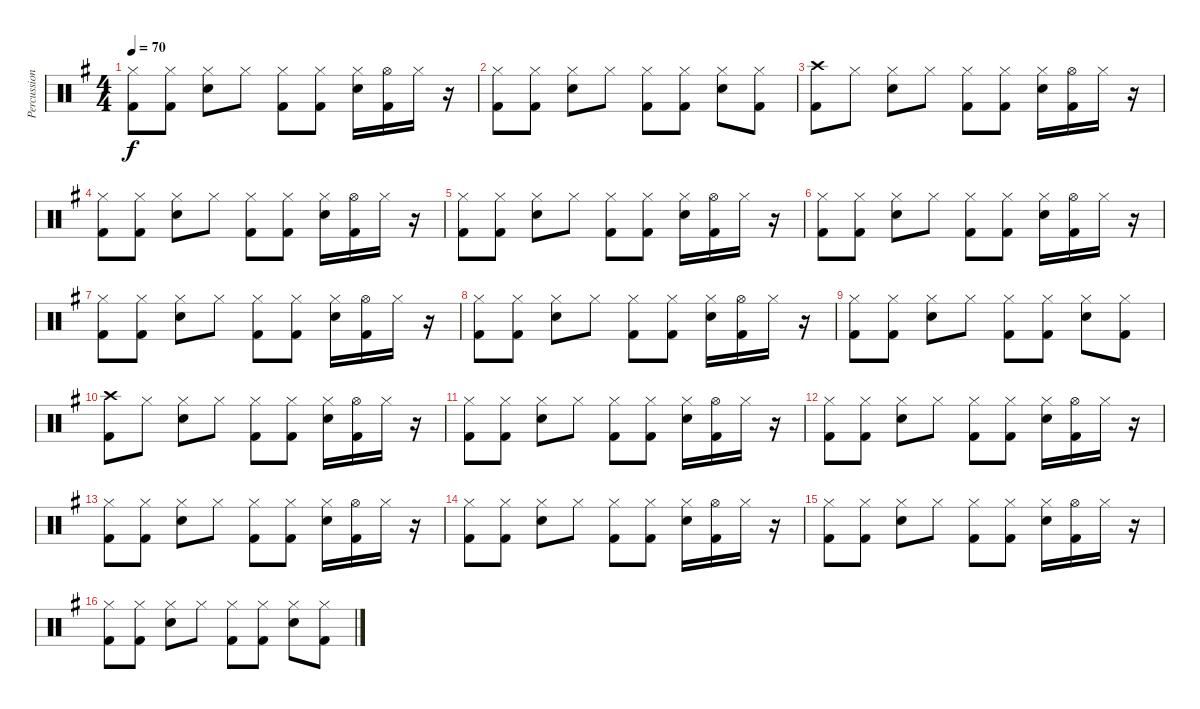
\track ("Percussion" "Percussion") {instrument percussion}
\staff {score}
\articulation defaults
\ts (4 4)
\tempo 70
\clef neutral
\ks g
("Hi-Hat (closed)" "Kick (hit) 2").8{dy f} ("Hi-Hat (closed)" "Kick (hit) 2").8 ("Hi-Hat (closed)" "Snare (hit) 2").8 "Hi-Hat (closed)".8 ("Hi-Hat (closed)" "Kick (hit) 2").8 ("Hi-Hat (closed)" "Kick (hit) 2").8 ("Hi-Hat (closed)" "Snare (hit) 2").16 ("Hi-Hat (open)" "Kick (hit) 2").16 "Hi-Hat (closed)".16 r.16 |
("Hi-Hat (closed)" "Kick (hit) 2").8 ("Hi-Hat (closed)" "Kick (hit) 2").8 ("Hi-Hat (closed)" "Snare (hit) 2").8 "Hi-Hat (closed)".8 ("Hi-Hat (closed)" "Kick (hit) 2").8 ("Hi-Hat (closed)" "Kick (hit) 2").8 ("Hi-Hat (closed)" "Snare (hit) 2").8 ("Hi-Hat (closed)" "Kick (hit) 2").8 |
("Crash high (hit)" "Kick (hit) 2").8 "Hi-Hat (closed)".8 ("Hi-Hat (closed)" "Snare (hit) 2").8 "Hi-Hat (closed)".8 ("Hi-Hat (closed)" "Kick (hit) 2").8 ("Hi-Hat (closed)" "Kick (hit) 2").8 ("Hi-Hat (closed)" "Snare (hit) 2").16 ("Hi-Hat (open)" "Kick (hit) 2").16 "Hi-Hat (closed)".16 r.16 |
("Hi-Hat (closed)" "Kick (hit) 2").8 ("Hi-Hat (closed)" "Kick (hit) 2").8 ("Hi-Hat (closed)" "Snare (hit) 2").8 "Hi-Hat (closed)".8 ("Hi-Hat (closed)" "Kick (hit) 2").8 ("Hi-Hat (closed)" "Kick (hit) 2").8 ("Hi-Hat (closed)" "Snare (hit) 2").16 ("Hi-Hat (open)" "Kick (hit) 2").16 "Hi-Hat (closed)".16 r.16 |
("Hi-Hat (closed)" "Kick (hit) 2").8 ("Hi-Hat (closed)" "Kick (hit) 2").8 ("Hi-Hat (closed)" "Snare (hit) 2").8 "Hi-Hat (closed)".8 ("Hi-Hat (closed)" "Kick (hit) 2").8 ("Hi-Hat (closed)" "Kick (hit) 2").8 ("Hi-Hat (closed)" "Snare (hit) 2").16 ("Hi-Hat (open)" "Kick (hit) 2").16 "Hi-Hat (closed)".16 r.16 |
("Hi-Hat (closed)" "Kick (hit) 2").8 ("Hi-Hat (closed)" "Kick (hit) 2").8 ("Hi-Hat (closed)" "Snare (hit) 2").8 "Hi-Hat (closed)".8 ("Hi-Hat (closed)" "Kick (hit) 2").8 ("Hi-Hat (closed)" "Kick (hit) 2").8 ("Hi-Hat (closed)" "Snare (hit) 2").16 ("Hi-Hat (open)" "Kick (hit) 2").16 "Hi-Hat (closed)".16 r.16 |
("Hi-Hat (closed)" "Kick (hit) 2").8 ("Hi-Hat (closed)" "Kick (hit) 2").8 ("Hi-Hat (closed)" "Snare (hit) 2").8 "Hi-Hat (closed)".8 ("Hi-Hat (closed)" "Kick (hit) 2").8 ("Hi-Hat (closed)" "Kick (hit) 2").8 ("Hi-Hat (closed)" "Snare (hit) 2").16 ("Hi-Hat (open)" "Kick (hit) 2").16 "Hi-Hat (closed)".16 r.16 |
("Hi-Hat (closed)" "Kick (hit) 2").8 ("Hi-Hat (closed)" "Kick (hit) 2").8 ("Hi-Hat (closed)" "Snare (hit) 2").8 "Hi-Hat (closed)".8 ("Hi-Hat (closed)" "Kick (hit) 2").8 ("Hi-Hat (closed)" "Kick (hit) 2").8 ("Hi-Hat (closed)" "Snare (hit) 2").16 ("Hi-Hat (open)" "Kick (hit) 2").16 "Hi-Hat (closed)".16 r.16 |
("Hi-Hat (closed)" "Kick (hit) 2").8 ("Hi-Hat (closed)" "Kick (hit) 2").8 ("Hi-Hat (closed)" "Snare (hit) 2").8 "Hi-Hat (closed)".8 ("Hi-Hat (closed)" "Kick (hit) 2").8 ("Hi-Hat (closed)" "Kick (hit) 2").8 ("Hi-Hat (closed)" "Snare (hit) 2").8 ("Hi-Hat (closed)" "Kick (hit) 2").8 |
("Crash high (hit)" "Kick (hit) 2").8 "Hi-Hat (closed)".8 ("Hi-Hat (closed)" "Snare (hit) 2").8 "Hi-Hat (closed)".8 ("Hi-Hat (closed)" "Kick (hit) 2").8 ("Hi-Hat (closed)" "Kick (hit) 2").8 ("Hi-Hat (closed)" "Snare (hit) 2").16 ("Hi-Hat (open)" "Kick (hit) 2").16 "Hi-Hat (closed)".16 r.16 |
("Hi-Hat (closed)" "Kick (hit) 2").8 ("Hi-Hat (closed)" "Kick (hit) 2").8 ("Hi-Hat (closed)" "Snare (hit) 2").8 "Hi-Hat (closed)".8 ("Hi-Hat (closed)" "Kick (hit) 2").8 ("Hi-Hat (closed)" "Kick (hit) 2").8 ("Hi-Hat (closed)" "Snare (hit) 2").16 ("Hi-Hat (open)" "Kick (hit) 2").16 "Hi-Hat (closed)".16 r.16 |
("Hi-Hat (closed)" "Kick (hit) 2").8 ("Hi-Hat (closed)" "Kick (hit) 2").8 ("Hi-Hat (closed)" "Snare (hit) 2").8 "Hi-Hat (closed)".8 ("Hi-Hat (closed)" "Kick (hit) 2").8 ("Hi-Hat (closed)" "Kick (hit) 2").8 ("Hi-Hat (closed)" "Snare (hit) 2").16 ("Hi-Hat (open)" "Kick (hit) 2").16 "Hi-Hat (closed)".16 r.16 |
("Hi-Hat (closed)" "Kick (hit) 2").8 ("Hi-Hat (closed)" "Kick (hit) 2").8 ("Hi-Hat (closed)" "Snare (hit) 2").8 "Hi-Hat (closed)".8 ("Hi-Hat (closed)" "Kick (hit) 2").8 ("Hi-Hat (closed)" "Kick (hit) 2").8 ("Hi-Hat (closed)" "Snare (hit) 2").16 ("Hi-Hat (open)" "Kick (hit) 2").16 "Hi-Hat (closed)".16 r.16 |
("Hi-Hat (closed)" "Kick (hit) 2").8 ("Hi-Hat (closed)" "Kick (hit) 2").8 ("Hi-Hat (closed)" "Snare (hit) 2").8 "Hi-Hat (closed)".8 ("Hi-Hat (closed)" "Kick (hit) 2").8 ("Hi-Hat (closed)" "Kick (hit) 2").8 ("Hi-Hat (closed)" "Snare (hit) 2").16 ("Hi-Hat (open)" "Kick (hit) 2").16 "Hi-Hat (closed)".16 r.16 |
("Hi-Hat (closed)" "Kick (hit) 2").8 ("Hi-Hat (closed)" "Kick (hit) 2").8 ("Hi-Hat (closed)" "Snare (hit) 2").8 "Hi-Hat (closed)".8 ("Hi-Hat (closed)" "Kick (hit) 2").8 ("Hi-Hat (closed)" "Kick (hit) 2").8 ("Hi-Hat (closed)" "Snare (hit) 2").16 ("Hi-Hat (open)" "Kick (hit) 2").16 "Hi-Hat (closed)".16 r.16 |
("Hi-Hat (closed)" "Kick (hit) 2").8 ("Hi-Hat (closed)" "Kick (hit) 2").8 ("Hi-Hat (closed)" "Snare (hit) 2").8 "Hi-Hat (closed)".8 ("Hi-Hat (closed)" "Kick (hit) 2").8 ("Hi-Hat (closed)" "Kick (hit) 2").8 ("Hi-Hat (closed)" "Snare (hit) 2").8 ("Hi-Hat (closed)" "Kick (hit) 2").8
